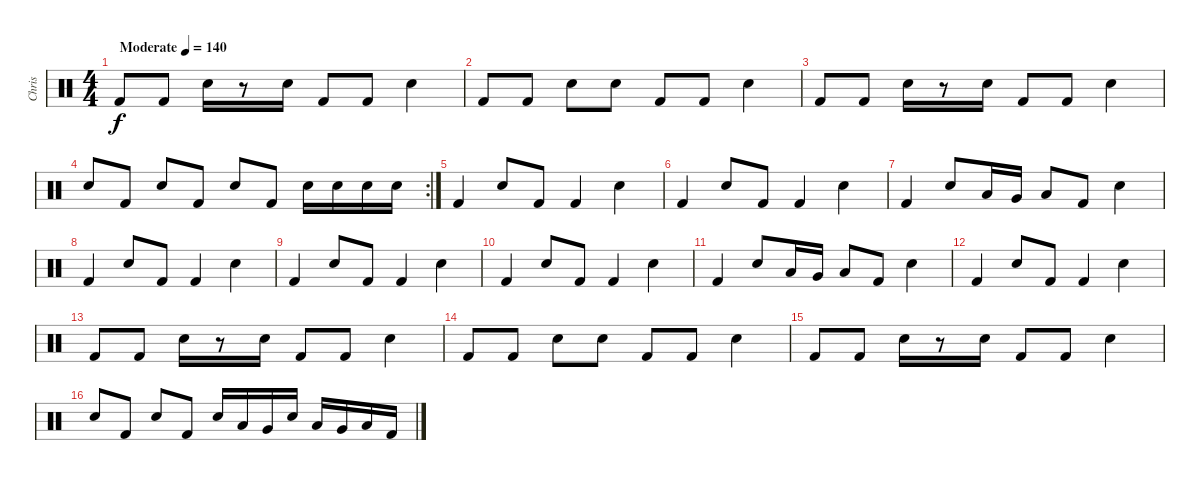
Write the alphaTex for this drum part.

\track ("Chris" "Chris") {instrument percussion}
\staff {score}
\articulation defaults
\ts (4 4)
\tempo (140 "Moderate")
\clef neutral
\ks c "Kick (hit) 2".8{dy f} "Kick (hit) 2".8 "Snare (hit) 2".16
r.8 "Snare (hit) 2".16 "Kick (hit) 2".8 "Kick (hit) 2".8 "Snare (hit) 2".4 |
"Kick (hit) 2".8 "Kick (hit) 2".8 "Snare (hit) 2".8 "Snare (hit) 2".8 "Kick (hit) 2".8 "Kick (hit) 2".8 "Snare (hit) 2".4 |
"Kick (hit) 2".8 "Kick (hit) 2".8 "Snare (hit) 2".16 r.8 "Snare (hit) 2".16 "Kick (hit) 2".8 "Kick (hit) 2".8 "Snare (hit) 2".4 |
\rc 2 "Snare (hit) 2".8 "Kick (hit) 2".8 "Snare (hit) 2".8 "Kick (hit) 2".8 "Snare (hit) 2".8 "Kick (hit) 2".8 "Snare (hit) 2".16 "Snare (hit) 2".16 "Snare (hit) 2".16 "Snare (hit) 2".16
|
"Kick (hit) 2".4 "Snare (hit) 2".8 "Kick (hit) 2".8 "Kick (hit) 2".4 "Snare (hit) 2".4 |
"Kick (hit) 2".4 "Snare (hit) 2".8 "Kick (hit) 2".8 "Kick (hit) 2".4 "Snare (hit) 2".4 |
"Kick (hit) 2".4 "Snare (hit) 2".8 "Low Tom (hit)".16 "Very Low Tom (hit)".16 "Low Floor Tom (hit)".8 "Kick (hit) 2".8 "Snare (hit) 2".4 |
"Kick (hit) 2".4 "Snare (hit) 2".8 "Kick (hit) 2".8 "Kick (hit) 2".4 "Snare (hit) 2".4 |
"Kick (hit) 2".4 "Snare (hit) 2".8 "Kick (hit) 2".8 "Kick (hit) 2".4 "Snare (hit) 2".4 |
"Kick (hit) 2".4 "Snare (hit) 2".8 "Kick (hit) 2".8 "Kick (hit) 2".4 "Snare (hit) 2".4 |
"Kick (hit) 2".4 "Snare (hit) 2".8 "Low Tom (hit)".16 "Very Low Tom (hit)".16 "Low Floor Tom (hit)".8 "Kick (hit) 2".8 "Snare (hit) 2".4 |
"Kick (hit) 2".4 "Snare (hit) 2".8 "Kick (hit) 2".8 "Kick (hit) 2".4 "Snare (hit) 2".4 |
"Kick (hit) 2".8 "Kick (hit) 2".8 "Snare (hit) 2".16 r.8 "Snare (hit) 2".16 "Kick (hit) 2".8 "Kick (hit) 2".8 "Snare (hit) 2".4 |
"Kick (hit) 2".8 "Kick (hit) 2".8 "Snare (hit) 2".8 "Snare (hit) 2".8 "Kick (hit) 2".8 "Kick (hit) 2".8 "Snare (hit) 2".4 |
"Kick (hit) 2".8 "Kick (hit) 2".8 "Snare (hit) 2".16 r.8 "Snare (hit) 2".16 "Kick (hit) 2".8 "Kick (hit) 2".8 "Snare (hit) 2".4 |
"Snare (hit) 2".8 "Kick (hit) 2".8 "Snare (hit) 2".8 "Kick (hit) 2".8 "Snare (hit) 2".16 "Low Tom (hit)".16 "Very Low Tom (hit)".16 "Snare (hit) 2".16 "Low Tom (hit)".16 "Very Low Tom (hit)".16 "Low Floor Tom (hit)".16 "Kick (hit) 2".16
